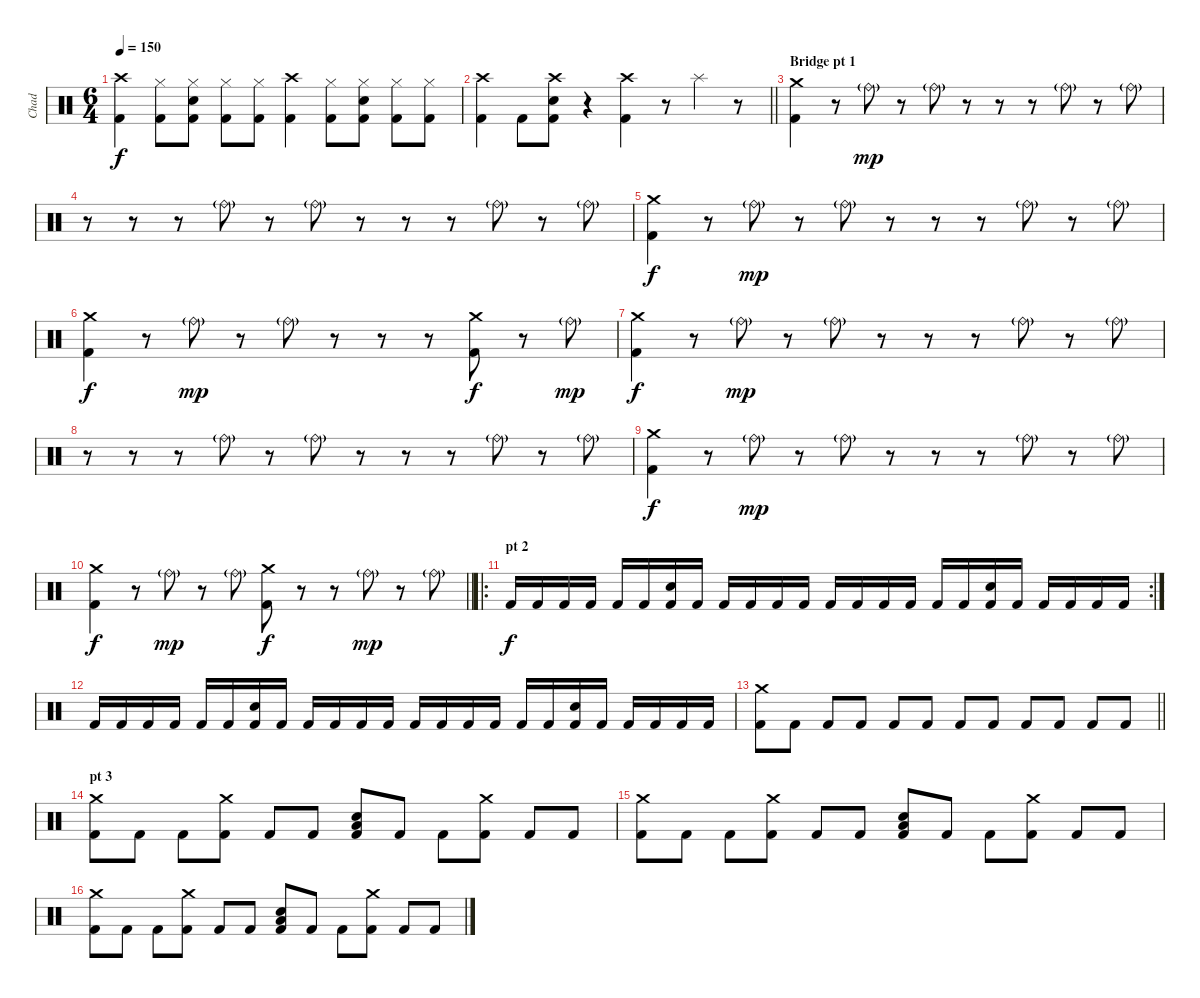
\track ("Chad" "Chad") {instrument percussion}
\staff {score}
\articulation defaults
\ts (6 4)
\tempo 150
\clef neutral
\ks c
("Crash high (hit)" "Kick (hit) 2").4{dy f} ("Hi-Hat (closed)" "Kick (hit) 2").8 ("Hi-Hat (closed)" "Electric Snare (hit)" "Kick (hit) 2").8 ("Hi-Hat (closed)" "Kick (hit) 2").8 ("Hi-Hat (closed)" "Kick (hit) 2").8 ("Crash high (hit)" "Kick (hit) 2").4 ("Hi-Hat (closed)" "Kick (hit) 2").8 ("Hi-Hat (closed)" "Electric Snare (hit)" "Kick (hit) 2").8 ("Hi-Hat (closed)" "Kick (hit) 2").8 ("Hi-Hat (closed)" "Kick (hit) 2").8 |
\barLineRight lightlight
("Crash high (hit)" "Kick (hit) 2").4 "Kick (hit) 2".8 ("Crash high (hit)" "Electric Snare (hit)" "Kick (hit) 2").8 r.4 ("Crash high (hit)" "Kick (hit) 2").4 r.8 "Splash (hit)".4 r.8 |
\section ("" "Bridge pt 1")
("Crash medium (hit)" "Kick (hit) 2").4 r.8 "Ride (bell)"{g}.8{dy mp} r.8 "Ride (bell)"{g}.8 r.8 r.8 r.8 "Ride (bell)"{g}.8 r.8 "Ride (bell)"{g}.8 |
r.8 r.8 r.8 "Ride (bell)"{g}.8 r.8 "Ride (bell)"{g}.8 r.8 r.8 r.8 "Ride (bell)"{g}.8 r.8 "Ride (bell)"{g}.8 |
("Crash medium (hit)" "Kick (hit) 2").4{dy f} r.8 "Ride (bell)"{g}.8{dy mp} r.8 "Ride (bell)"{g}.8 r.8 r.8 r.8 "Ride (bell)"{g}.8 r.8 "Ride (bell)"{g}.8 |
("Crash medium (hit)" "Kick (hit) 2").4{dy f} r.8 "Ride (bell)"{g}.8{dy mp} r.8 "Ride (bell)"{g}.8 r.8 r.8 r.8 ("Crash medium (hit)" "Kick (hit) 2").8{dy f} r.8 "Ride (bell)"{g}.8{dy mp} |
("Crash medium (hit)" "Kick (hit) 2").4{dy f} r.8 "Ride (bell)"{g}.8{dy mp} r.8 "Ride (bell)"{g}.8 r.8 r.8 r.8 "Ride (bell)"{g}.8 r.8 "Ride (bell)"{g}.8 |
r.8 r.8 r.8 "Ride (bell)"{g}.8 r.8 "Ride (bell)"{g}.8 r.8 r.8 r.8 "Ride (bell)"{g}.8 r.8 "Ride (bell)"{g}.8 |
("Crash medium (hit)" "Kick (hit) 2").4{dy f} r.8 "Ride (bell)"{g}.8{dy mp} r.8 "Ride (bell)"{g}.8 r.8 r.8 r.8 "Ride (bell)"{g}.8 r.8 "Ride (bell)"{g}.8 |
\barLineRight lightlight
("Crash medium (hit)" "Kick (hit) 2").4{dy f} r.8 "Ride (bell)"{g}.8{dy mp} r.8 "Ride (bell)"{g}.8 ("Crash medium (hit)" "Kick (hit) 2").8{dy f} r.8 r.8 "Ride (bell)"{g}.8{dy mp} r.8 "Ride (bell)"{g}.8 |
\ro
\rc 2
\section ("" "pt 2")
"Kick (hit) 2".16{dy f} "Kick (hit) 2".16 "Kick (hit) 2".16 "Kick (hit) 2".16 "Kick (hit) 2".16 "Kick (hit) 2".16 ("Electric Snare (hit)" "Kick (hit) 2").16 "Kick (hit) 2".16 "Kick (hit) 2".16 "Kick (hit) 2".16 "Kick (hit) 2".16 "Kick (hit) 2".16 "Kick (hit) 2".16 "Kick (hit) 2".16 "Kick (hit) 2".16 "Kick (hit) 2".16 "Kick (hit) 2".16 "Kick (hit) 2".16 ("Electric Snare (hit)" "Kick (hit) 2").16 "Kick (hit) 2".16 "Kick (hit) 2".16 "Kick (hit) 2".16 "Kick (hit) 2".16 "Kick (hit) 2".16 |
"Kick (hit) 2".16 "Kick (hit) 2".16 "Kick (hit) 2".16 "Kick (hit) 2".16 "Kick (hit) 2".16 "Kick (hit) 2".16 ("Electric Snare (hit)" "Kick (hit) 2").16 "Kick (hit) 2".16 "Kick (hit) 2".16 "Kick (hit) 2".16 "Kick (hit) 2".16 "Kick (hit) 2".16 "Kick (hit) 2".16 "Kick (hit) 2".16 "Kick (hit) 2".16 "Kick (hit) 2".16 "Kick (hit) 2".16 "Kick (hit) 2".16 ("Electric Snare (hit)" "Kick (hit) 2").16 "Kick (hit) 2".16 "Kick (hit) 2".16 "Kick (hit) 2".16 "Kick (hit) 2".16 "Kick (hit) 2".16 |
\barLineRight lightlight
("Crash medium (hit)" "Kick (hit) 2").8 "Kick (hit) 2".8 "Kick (hit) 2".8 "Kick (hit) 2".8 "Kick (hit) 2".8 "Kick (hit) 2".8 "Kick (hit) 2".8 "Kick (hit) 2".8 "Kick (hit) 2".8 "Kick (hit) 2".8 "Kick (hit) 2".8 "Kick (hit) 2".8 |
\section ("" "pt 3")
("Crash medium (hit)" "Kick (hit) 2").8 "Kick (hit) 2".8 "Kick (hit) 2".8 ("Crash medium (hit)" "Kick (hit) 2").8 "Kick (hit) 2".8 "Kick (hit) 2".8 ("Electric Snare (hit)" "Low Floor Tom (hit)" "Kick (hit) 2").8{volume 16} "Kick (hit) 2".8{volume 10} "Kick (hit) 2".8 ("Crash medium (hit)" "Kick (hit) 2").8 "Kick (hit) 2".8 "Kick (hit) 2".8 |
("Crash medium (hit)" "Kick (hit) 2").8 "Kick (hit) 2".8 "Kick (hit) 2".8 ("Crash medium (hit)" "Kick (hit) 2").8 "Kick (hit) 2".8 "Kick (hit) 2".8 ("Electric Snare (hit)" "Low Floor Tom (hit)" "Kick (hit) 2").8{volume 16} "Kick (hit) 2".8{volume 13} "Kick (hit) 2".8 ("Crash medium (hit)" "Kick (hit) 2").8 "Kick (hit) 2".8 "Kick (hit) 2".8 |
("Crash medium (hit)" "Kick (hit) 2").8 "Kick (hit) 2".8 "Kick (hit) 2".8 ("Crash medium (hit)" "Kick (hit) 2").8 "Kick (hit) 2".8 "Kick (hit) 2".8 ("Electric Snare (hit)" "Low Floor Tom (hit)" "Kick (hit) 2").8{volume 16} "Kick (hit) 2".8{volume 13} "Kick (hit) 2".8 ("Crash medium (hit)" "Kick (hit) 2").8 "Kick (hit) 2".8 "Kick (hit) 2".8
